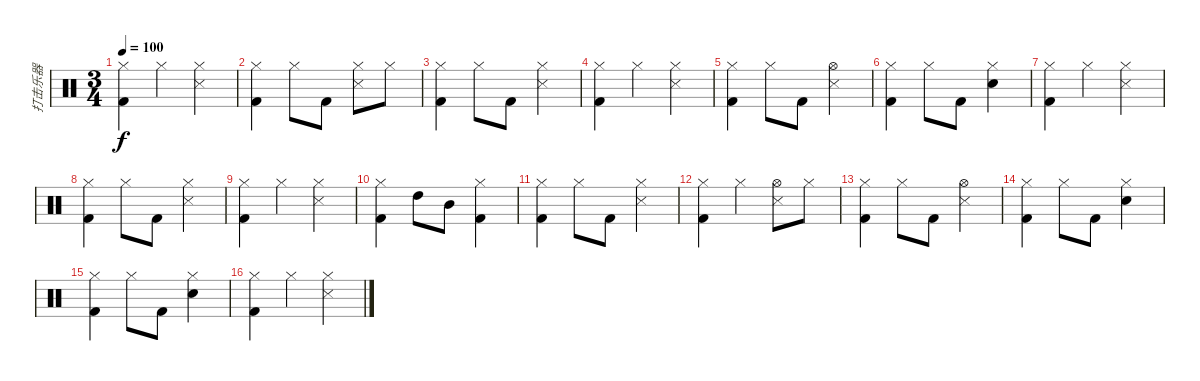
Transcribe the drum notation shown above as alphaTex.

\track ("打击乐器" "打击乐器") {instrument percussion}
\staff {score}
\articulation defaults
\ts (3 4)
\tempo 100
\clef neutral
\ks c
("Hi-Hat (closed)" "Kick (hit) 2").4{dy f} "Hi-Hat (closed)".4 ("Hi-Hat (closed)" "Snare (side stick) 3").4 |
("Hi-Hat (closed)" "Kick (hit) 2").4 "Hi-Hat (closed)".8 "Kick (hit) 2".8 ("Hi-Hat (closed)" "Snare (side stick) 3").8 "Hi-Hat (closed)".8 |
("Hi-Hat (closed)" "Kick (hit) 2").4 "Hi-Hat (closed)".8 "Kick (hit) 2".8 ("Hi-Hat (closed)" "Snare (side stick) 3").4 |
("Hi-Hat (closed)" "Kick (hit) 2").4 "Hi-Hat (closed)".4 ("Hi-Hat (closed)" "Snare (side stick) 3").4 |
("Hi-Hat (closed)" "Kick (hit) 2").4 "Hi-Hat (closed)".8 "Kick (hit) 2".8 ("Hi-Hat (open)" "Snare (side stick) 3").4 |
("Hi-Hat (closed)" "Kick (hit) 2").4 "Hi-Hat (closed)".8 "Kick (hit) 2".8 ("Hi-Hat (closed)" "Electric Snare (hit)").4 |
("Hi-Hat (closed)" "Kick (hit) 2").4 "Hi-Hat (closed)".4 ("Hi-Hat (closed)" "Snare (side stick) 3").4 |
("Hi-Hat (closed)" "Kick (hit) 2").4 "Hi-Hat (closed)".8 "Kick (hit) 2".8 ("Hi-Hat (closed)" "Snare (side stick) 3").4 |
("Hi-Hat (closed)" "Kick (hit) 2").4 "Hi-Hat (closed)".4 ("Hi-Hat (closed)" "Snare (side stick) 3").4 |
("Hi-Hat (closed)" "Kick (hit) 2").4 "High Tom (hit)".8 "Mid Tom (hit)".8 ("Hi-Hat (closed)" "Kick (hit) 2").4 |
("Hi-Hat (closed)" "Kick (hit) 2").4 "Hi-Hat (closed)".8 "Kick (hit) 2".8 ("Hi-Hat (closed)" "Snare (side stick) 3").4 |
("Hi-Hat (closed)" "Kick (hit) 2").4 "Hi-Hat (closed)".4 ("Hi-Hat (open)" "Snare (side stick) 3").8 "Hi-Hat (closed)".8 |
("Hi-Hat (closed)" "Kick (hit) 2").4 "Hi-Hat (closed)".8 "Kick (hit) 2".8 ("Hi-Hat (open)" "Snare (side stick) 3").4 |
("Hi-Hat (closed)" "Kick (hit) 2").4 "Hi-Hat (closed)".8 "Kick (hit) 2".8 ("Hi-Hat (closed)" "Electric Snare (hit)").4 |
("Hi-Hat (closed)" "Kick (hit) 2").4 "Hi-Hat (closed)".8 "Kick (hit) 2".8 ("Hi-Hat (closed)" "Electric Snare (hit)").4 |
("Hi-Hat (closed)" "Kick (hit) 2").4 "Hi-Hat (closed)".4 ("Hi-Hat (closed)" "Snare (side stick) 3").4
